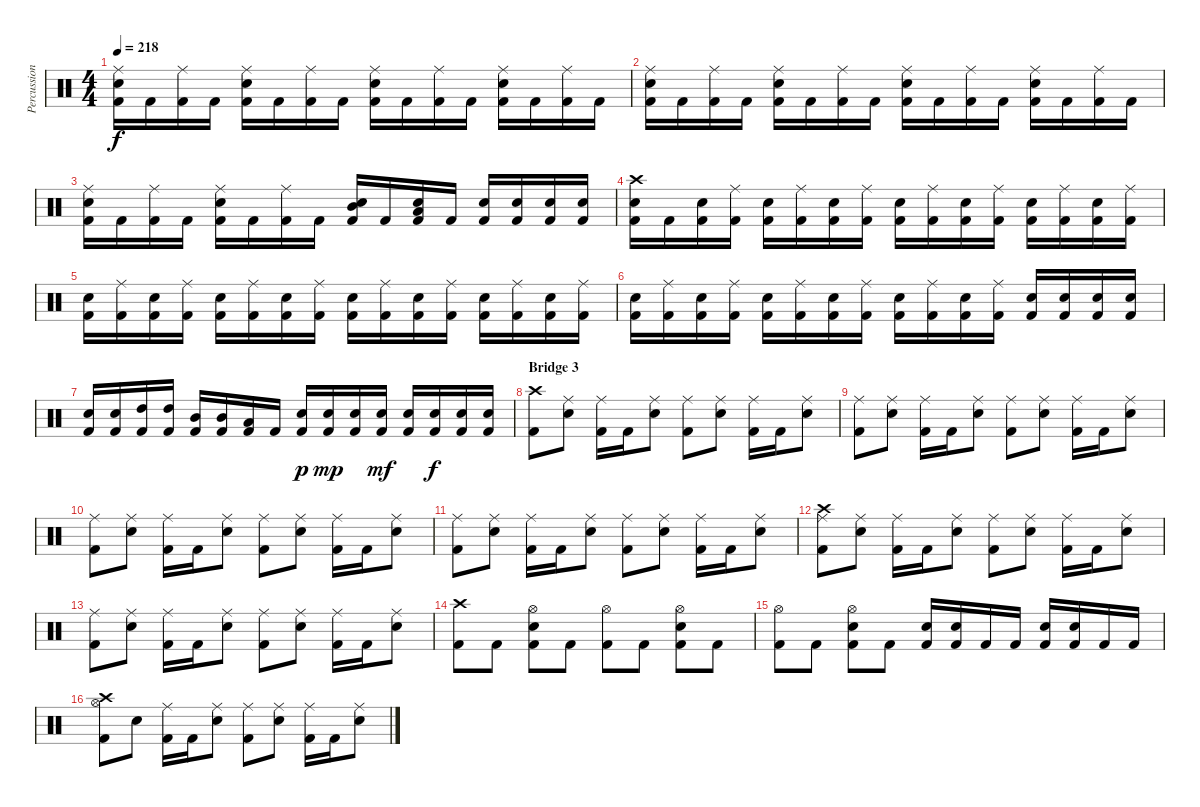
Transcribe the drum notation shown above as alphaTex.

\track ("Percussion" "Percussion") {instrument percussion}
\staff {score}
\articulation defaults
\ts (4 4)
\tempo 218
\clef neutral
\ks c
("Ride (middle)" "Electric Snare (hit)" "Kick (hit) 2").16{dy f} "Kick (hit) 2".16 ("Ride (middle)" "Kick (hit) 2").16 "Kick (hit) 2".16 ("Ride (middle)" "Electric Snare (hit)" "Kick (hit) 2").16 "Kick (hit) 2".16 ("Ride (middle)" "Kick (hit) 2").16 "Kick (hit) 2".16 ("Ride (middle)" "Electric Snare (hit)" "Kick (hit) 2").16 "Kick (hit) 2".16 ("Ride (middle)" "Kick (hit) 2").16 "Kick (hit) 2".16 ("Ride (middle)" "Electric Snare (hit)" "Kick (hit) 2").16 "Kick (hit) 2".16 ("Ride (middle)" "Kick (hit) 2").16 "Kick (hit) 2".16 |
("Ride (middle)" "Electric Snare (hit)" "Kick (hit) 2").16 "Kick (hit) 2".16 ("Ride (middle)" "Kick (hit) 2").16 "Kick (hit) 2".16 ("Ride (middle)" "Electric Snare (hit)" "Kick (hit) 2").16 "Kick (hit) 2".16 ("Ride (middle)" "Kick (hit) 2").16 "Kick (hit) 2".16 ("Ride (middle)" "Electric Snare (hit)" "Kick (hit) 2").16 "Kick (hit) 2".16 ("Ride (middle)" "Kick (hit) 2").16 "Kick (hit) 2".16 ("Ride (middle)" "Electric Snare (hit)" "Kick (hit) 2").16 "Kick (hit) 2".16 ("Ride (middle)" "Kick (hit) 2").16 "Kick (hit) 2".16 |
("Ride (middle)" "Electric Snare (hit)" "Kick (hit) 2").16 "Kick (hit) 2".16 ("Ride (middle)" "Kick (hit) 2").16 "Kick (hit) 2".16 ("Ride (middle)" "Electric Snare (hit)" "Kick (hit) 2").16 "Kick (hit) 2".16 ("Ride (middle)" "Kick (hit) 2").16 "Kick (hit) 2".16 ("Mid Tom (hit)" "Electric Snare (hit)" "Kick (hit) 2").16 "Kick (hit) 2".16 ("Low Tom (hit)" "Electric Snare (hit)" "Kick (hit) 2").16 "Kick (hit) 2".16 ("Electric Snare (hit)" "Kick (hit) 2").16 ("Electric Snare (hit)" "Kick (hit) 2").16 ("Electric Snare (hit)" "Kick (hit) 2").16 ("Electric Snare (hit)" "Kick (hit) 2").16 |
("Crash high (hit)" "Electric Snare (hit)" "Kick (hit) 2").16 "Kick (hit) 2".16 ("Electric Snare (hit)" "Kick (hit) 2").16 ("Ride (middle)" "Kick (hit) 2").16 ("Electric Snare (hit)" "Kick (hit) 2").16 ("Ride (middle)" "Kick (hit) 2").16 ("Electric Snare (hit)" "Kick (hit) 2").16 ("Ride (middle)" "Kick (hit) 2").16 ("Electric Snare (hit)" "Kick (hit) 2").16 ("Ride (middle)" "Kick (hit) 2").16 ("Electric Snare (hit)" "Kick (hit) 2").16 ("Ride (middle)" "Kick (hit) 2").16 ("Electric Snare (hit)" "Kick (hit) 2").16 ("Ride (middle)" "Kick (hit) 2").16 ("Electric Snare (hit)" "Kick (hit) 2").16 ("Ride (middle)" "Kick (hit) 2").16 |
("Electric Snare (hit)" "Kick (hit) 2").16 ("Ride (middle)" "Kick (hit) 2").16 ("Electric Snare (hit)" "Kick (hit) 2").16 ("Ride (middle)" "Kick (hit) 2").16 ("Electric Snare (hit)" "Kick (hit) 2").16 ("Ride (middle)" "Kick (hit) 2").16 ("Electric Snare (hit)" "Kick (hit) 2").16 ("Ride (middle)" "Kick (hit) 2").16 ("Electric Snare (hit)" "Kick (hit) 2").16 ("Ride (middle)" "Kick (hit) 2").16 ("Electric Snare (hit)" "Kick (hit) 2").16 ("Ride (middle)" "Kick (hit) 2").16 ("Electric Snare (hit)" "Kick (hit) 2").16 ("Ride (middle)" "Kick (hit) 2").16 ("Electric Snare (hit)" "Kick (hit) 2").16 ("Ride (middle)" "Kick (hit) 2").16 |
("Electric Snare (hit)" "Kick (hit) 2").16 ("Ride (middle)" "Kick (hit) 2").16 ("Electric Snare (hit)" "Kick (hit) 2").16 ("Ride (middle)" "Kick (hit) 2").16 ("Electric Snare (hit)" "Kick (hit) 2").16 ("Ride (middle)" "Kick (hit) 2").16 ("Electric Snare (hit)" "Kick (hit) 2").16 ("Ride (middle)" "Kick (hit) 2").16 ("Electric Snare (hit)" "Kick (hit) 2").16 ("Ride (middle)" "Kick (hit) 2").16 ("Electric Snare (hit)" "Kick (hit) 2").16 ("Ride (middle)" "Kick (hit) 2").16 ("Electric Snare (hit)" "Kick (hit) 2").16 ("Electric Snare (hit)" "Kick (hit) 2").16 ("Electric Snare (hit)" "Kick (hit) 2").16 ("Electric Snare (hit)" "Kick (hit) 2").16 |
("Electric Snare (hit)" "Kick (hit) 2").16 ("Electric Snare (hit)" "Kick (hit) 2").16 ("High Tom (hit)" "Kick (hit) 2").16 ("High Tom (hit)" "Kick (hit) 2").16 ("Mid Tom (hit)" "Kick (hit) 2").16 ("Mid Tom (hit)" "Kick (hit) 2").16 ("Low Tom (hit)" "Kick (hit) 2").16 "Kick (hit) 2".16 ("Electric Snare (hit)" "Kick (hit) 2").16{dy p} ("Electric Snare (hit)" "Kick (hit) 2").16{dy mp} ("Electric Snare (hit)" "Kick (hit) 2").16 ("Electric Snare (hit)" "Kick (hit) 2").16{dy mf} ("Electric Snare (hit)" "Kick (hit) 2").16 ("Electric Snare (hit)" "Kick (hit) 2").16{dy f} ("Electric Snare (hit)" "Kick (hit) 2").16 ("Electric Snare (hit)" "Kick (hit) 2").16 |
\section ("" "Bridge 3")
("Crash high (hit)" "Kick (hit) 2").8 ("Ride (middle)" "Electric Snare (hit)").8 ("Ride (middle)" "Kick (hit) 2").16 "Kick (hit) 2".16 ("Ride (middle)" "Electric Snare (hit)").8 ("Ride (middle)" "Kick (hit) 2").8 ("Ride (middle)" "Electric Snare (hit)").8 ("Ride (middle)" "Kick (hit) 2").16 "Kick (hit) 2".16 ("Ride (middle)" "Electric Snare (hit)").8 |
("Ride (middle)" "Kick (hit) 2").8 ("Ride (middle)" "Electric Snare (hit)").8 ("Ride (middle)" "Kick (hit) 2").16 "Kick (hit) 2".16 ("Ride (middle)" "Electric Snare (hit)").8 ("Ride (middle)" "Kick (hit) 2").8 ("Ride (middle)" "Electric Snare (hit)").8 ("Ride (middle)" "Kick (hit) 2").16 "Kick (hit) 2".16 ("Ride (middle)" "Electric Snare (hit)").8 |
("Ride (middle)" "Kick (hit) 2").8 ("Ride (middle)" "Electric Snare (hit)").8 ("Ride (middle)" "Kick (hit) 2").16 "Kick (hit) 2".16 ("Ride (middle)" "Electric Snare (hit)").8 ("Ride (middle)" "Kick (hit) 2").8 ("Ride (middle)" "Electric Snare (hit)").8 ("Ride (middle)" "Kick (hit) 2").16 "Kick (hit) 2".16 ("Ride (middle)" "Electric Snare (hit)").8 |
("Ride (middle)" "Kick (hit) 2").8 ("Ride (middle)" "Electric Snare (hit)").8 ("Ride (middle)" "Kick (hit) 2").16 "Kick (hit) 2".16 ("Ride (middle)" "Electric Snare (hit)").8 ("Ride (middle)" "Kick (hit) 2").8 ("Ride (middle)" "Electric Snare (hit)").8 ("Ride (middle)" "Kick (hit) 2").16 "Kick (hit) 2".16 ("Ride (middle)" "Electric Snare (hit)").8 |
("Crash high (hit)" "Ride (middle)" "Kick (hit) 2").8 ("Ride (middle)" "Electric Snare (hit)").8 ("Ride (middle)" "Kick (hit) 2").16 "Kick (hit) 2".16 ("Ride (middle)" "Electric Snare (hit)").8 ("Ride (middle)" "Kick (hit) 2").8 ("Ride (middle)" "Electric Snare (hit)").8 ("Ride (middle)" "Kick (hit) 2").16 "Kick (hit) 2".16 ("Ride (middle)" "Electric Snare (hit)").8 |
("Ride (middle)" "Kick (hit) 2").8 ("Ride (middle)" "Electric Snare (hit)").8 ("Ride (middle)" "Kick (hit) 2").16 "Kick (hit) 2".16 ("Ride (middle)" "Electric Snare (hit)").8 ("Ride (middle)" "Kick (hit) 2").8 ("Ride (middle)" "Electric Snare (hit)").8 ("Ride (middle)" "Kick (hit) 2").16 "Kick (hit) 2".16 ("Ride (middle)" "Electric Snare (hit)").8 |
("Crash high (hit)" "Kick (hit) 2").8 "Kick (hit) 2".8 ("Hi-Hat (open)" "Electric Snare (hit)" "Kick (hit) 2").8 "Kick (hit) 2".8 ("Hi-Hat (open)" "Kick (hit) 2").8 "Kick (hit) 2".8 ("Hi-Hat (open)" "Electric Snare (hit)" "Kick (hit) 2").8 "Kick (hit) 2".8 |
("Hi-Hat (open)" "Kick (hit) 2").8 "Kick (hit) 2".8 ("Hi-Hat (open)" "Electric Snare (hit)" "Kick (hit) 2").8 "Kick (hit) 2".8 ("Electric Snare (hit)" "Kick (hit) 2").16 ("Electric Snare (hit)" "Kick (hit) 2").16 "Kick (hit) 2".16 "Kick (hit) 2".16 ("Electric Snare (hit)" "Kick (hit) 2").16 ("Electric Snare (hit)" "Kick (hit) 2").16 "Kick (hit) 2".16 "Kick (hit) 2".16 |
("Crash high (hit)" "Hi-Hat (open)" "Kick (hit) 2").8 "Electric Snare (hit)".8 ("Ride (middle)" "Kick (hit) 2").16 "Kick (hit) 2".16 ("Ride (middle)" "Electric Snare (hit)").8 ("Ride (middle)" "Kick (hit) 2").8 ("Ride (middle)" "Electric Snare (hit)").8 ("Ride (middle)" "Kick (hit) 2").16 "Kick (hit) 2".16 ("Ride (middle)" "Electric Snare (hit)").8
